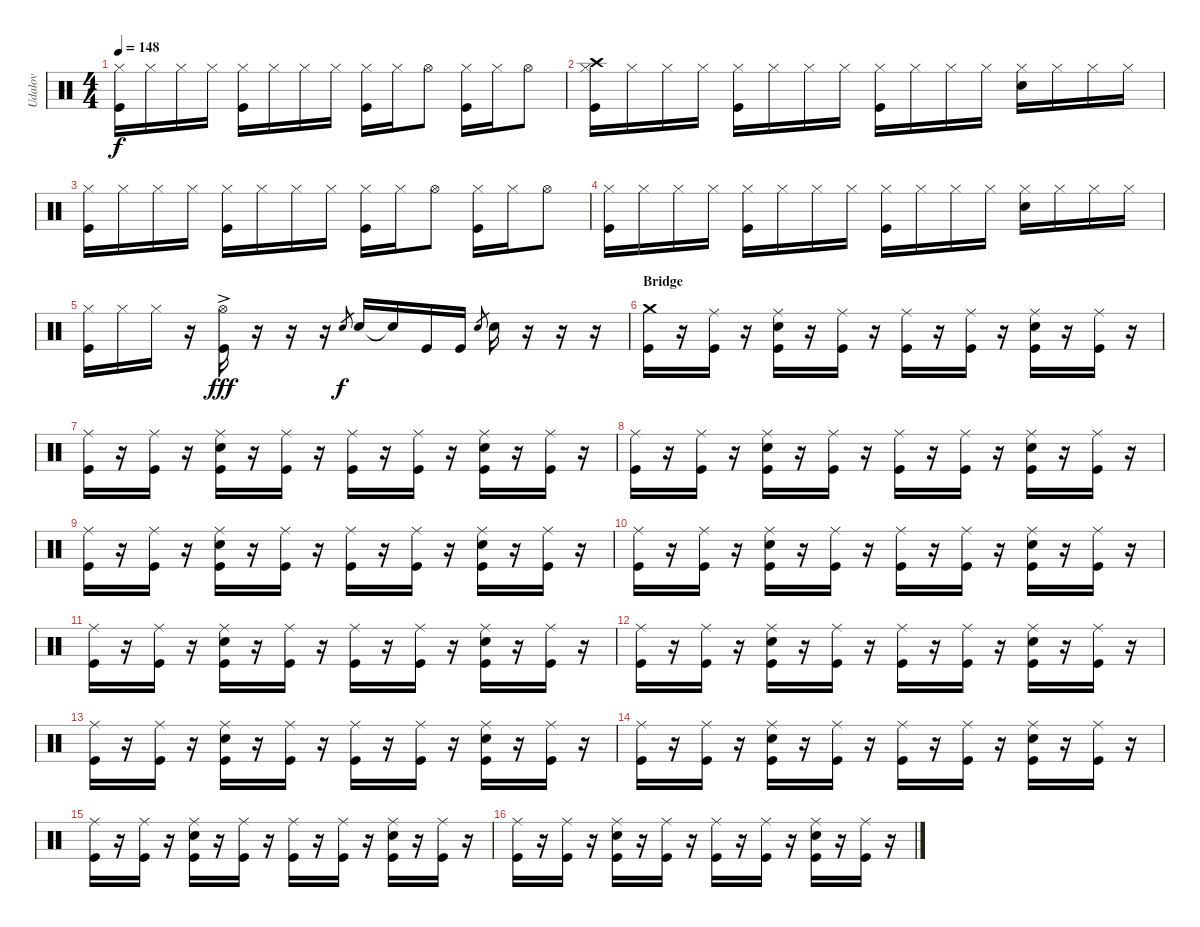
\track ("Udalov" "Udalov") {instrument percussion}
\staff {score}
\articulation defaults
\ts (4 4)
\tempo 148
\clef neutral
\ks c
("Kick (hit)" "Hi-Hat (closed)").16{dy f} "Hi-Hat (closed)".16 "Hi-Hat (closed)".16 "Hi-Hat (closed)".16 ("Kick (hit)" "Hi-Hat (closed)").16 "Hi-Hat (closed)".16 "Hi-Hat (closed)".16 "Hi-Hat (closed)".16 ("Kick (hit)" "Hi-Hat (closed)").16 "Hi-Hat (closed)".16 "Hi-Hat (open)".8 ("Kick (hit)" "Hi-Hat (closed)").16 "Hi-Hat (closed)".16 "Hi-Hat (open)".8 |
("Kick (hit)" "Crash high (hit)" "Hi-Hat (closed)").16 "Hi-Hat (closed)".16 "Hi-Hat (closed)".16 "Hi-Hat (closed)".16 ("Kick (hit)" "Hi-Hat (closed)").16 "Hi-Hat (closed)".16 "Hi-Hat (closed)".16 "Hi-Hat (closed)".16 ("Kick (hit)" "Hi-Hat (closed)").16 "Hi-Hat (closed)".16 "Hi-Hat (closed)".16 "Hi-Hat (closed)".16 ("Electric Snare (hit)" "Hi-Hat (closed)").16 "Hi-Hat (closed)".16 "Hi-Hat (closed)".16 "Hi-Hat (closed)".16 |
("Kick (hit)" "Hi-Hat (closed)").16 "Hi-Hat (closed)".16 "Hi-Hat (closed)".16 "Hi-Hat (closed)".16 ("Kick (hit)" "Hi-Hat (closed)").16 "Hi-Hat (closed)".16 "Hi-Hat (closed)".16 "Hi-Hat (closed)".16 ("Kick (hit)" "Hi-Hat (closed)").16 "Hi-Hat (closed)".16 "Hi-Hat (open)".8 ("Kick (hit)" "Hi-Hat (closed)").16 "Hi-Hat (closed)".16 "Hi-Hat (open)".8 |
("Kick (hit)" "Hi-Hat (closed)").16 "Hi-Hat (closed)".16 "Hi-Hat (closed)".16 "Hi-Hat (closed)".16 ("Kick (hit)" "Hi-Hat (closed)").16 "Hi-Hat (closed)".16 "Hi-Hat (closed)".16 "Hi-Hat (closed)".16 ("Kick (hit)" "Hi-Hat (closed)").16 "Hi-Hat (closed)".16 "Hi-Hat (closed)".16 "Hi-Hat (closed)".16 ("Electric Snare (hit)" "Hi-Hat (closed)").16 "Hi-Hat (closed)".16 "Hi-Hat (closed)".16 "Hi-Hat (closed)".16 |
("Kick (hit)" "Hi-Hat (closed)").16 "Hi-Hat (closed)".16 "Hi-Hat (closed)".16 r.16 ("Kick (hit)"{ac} "Hi-Hat (open)"{ac}).16{dy fff} r.16 r.16 r.16 "Electric Snare (hit)".8{gr dy f} "Electric Snare (hit)".16 "Snare (hit)"{t}.16 "Kick (hit)".16 "Kick (hit)".16 "Electric Snare (hit)".8{gr} "Electric Snare (hit)".16 r.16 r.16 r.16 |
\section ("" "Bridge")
("Kick (hit)" "Crash medium (hit)").16 r.16 ("Kick (hit)" "Ride (middle)").16 r.16 ("Electric Snare (hit)" "Kick (hit)" "Ride (middle)").16 r.16 ("Kick (hit)" "Ride (middle)").16 r.16 ("Kick (hit)" "Ride (middle)").16 r.16 ("Kick (hit)" "Ride (middle)").16 r.16 ("Electric Snare (hit)" "Kick (hit)" "Ride (middle)").16 r.16 ("Kick (hit)" "Ride (middle)").16 r.16 |
("Kick (hit)" "Ride (middle)").16 r.16 ("Kick (hit)" "Ride (middle)").16 r.16 ("Electric Snare (hit)" "Kick (hit)" "Ride (middle)").16 r.16 ("Kick (hit)" "Ride (middle)").16 r.16 ("Kick (hit)" "Ride (middle)").16 r.16 ("Kick (hit)" "Ride (middle)").16 r.16 ("Electric Snare (hit)" "Kick (hit)" "Ride (middle)").16 r.16 ("Kick (hit)" "Ride (middle)").16 r.16 |
("Kick (hit)" "Ride (middle)").16 r.16 ("Kick (hit)" "Ride (middle)").16 r.16 ("Electric Snare (hit)" "Kick (hit)" "Ride (middle)").16 r.16 ("Kick (hit)" "Ride (middle)").16 r.16 ("Kick (hit)" "Ride (middle)").16 r.16 ("Kick (hit)" "Ride (middle)").16 r.16 ("Electric Snare (hit)" "Kick (hit)" "Ride (middle)").16 r.16 ("Kick (hit)" "Ride (middle)").16 r.16 |
("Kick (hit)" "Ride (middle)").16 r.16 ("Kick (hit)" "Ride (middle)").16 r.16 ("Electric Snare (hit)" "Kick (hit)" "Ride (middle)").16 r.16 ("Kick (hit)" "Ride (middle)").16 r.16 ("Kick (hit)" "Ride (middle)").16 r.16 ("Kick (hit)" "Ride (middle)").16 r.16 ("Electric Snare (hit)" "Kick (hit)" "Ride (middle)").16 r.16 ("Kick (hit)" "Ride (middle)").16 r.16 |
("Kick (hit)" "Ride (middle)").16 r.16 ("Kick (hit)" "Ride (middle)").16 r.16 ("Electric Snare (hit)" "Kick (hit)" "Ride (middle)").16 r.16 ("Kick (hit)" "Ride (middle)").16 r.16 ("Kick (hit)" "Ride (middle)").16 r.16 ("Kick (hit)" "Ride (middle)").16 r.16 ("Electric Snare (hit)" "Kick (hit)" "Ride (middle)").16 r.16 ("Kick (hit)" "Ride (middle)").16 r.16 |
("Kick (hit)" "Ride (middle)").16 r.16 ("Kick (hit)" "Ride (middle)").16 r.16 ("Electric Snare (hit)" "Kick (hit)" "Ride (middle)").16 r.16 ("Kick (hit)" "Ride (middle)").16 r.16 ("Kick (hit)" "Ride (middle)").16 r.16 ("Kick (hit)" "Ride (middle)").16 r.16 ("Electric Snare (hit)" "Kick (hit)" "Ride (middle)").16 r.16 ("Kick (hit)" "Ride (middle)").16 r.16 |
("Kick (hit)" "Ride (middle)").16 r.16 ("Kick (hit)" "Ride (middle)").16 r.16 ("Electric Snare (hit)" "Kick (hit)" "Ride (middle)").16 r.16 ("Kick (hit)" "Ride (middle)").16 r.16 ("Kick (hit)" "Ride (middle)").16 r.16 ("Kick (hit)" "Ride (middle)").16 r.16 ("Electric Snare (hit)" "Kick (hit)" "Ride (middle)").16 r.16 ("Kick (hit)" "Ride (middle)").16 r.16 |
("Kick (hit)" "Ride (middle)").16 r.16 ("Kick (hit)" "Ride (middle)").16 r.16 ("Electric Snare (hit)" "Kick (hit)" "Ride (middle)").16 r.16 ("Kick (hit)" "Ride (middle)").16 r.16 ("Kick (hit)" "Ride (middle)").16 r.16 ("Kick (hit)" "Ride (middle)").16 r.16 ("Electric Snare (hit)" "Kick (hit)" "Ride (middle)").16 r.16 ("Kick (hit)" "Ride (middle)").16 r.16 |
("Kick (hit)" "Ride (middle)").16 r.16 ("Kick (hit)" "Ride (middle)").16 r.16 ("Electric Snare (hit)" "Kick (hit)" "Ride (middle)").16 r.16 ("Kick (hit)" "Ride (middle)").16 r.16 ("Kick (hit)" "Ride (middle)").16 r.16 ("Kick (hit)" "Ride (middle)").16 r.16 ("Electric Snare (hit)" "Kick (hit)" "Ride (middle)").16 r.16 ("Kick (hit)" "Ride (middle)").16 r.16 |
("Kick (hit)" "Ride (middle)").16 r.16 ("Kick (hit)" "Ride (middle)").16 r.16 ("Electric Snare (hit)" "Kick (hit)" "Ride (middle)").16 r.16 ("Kick (hit)" "Ride (middle)").16 r.16 ("Kick (hit)" "Ride (middle)").16 r.16 ("Kick (hit)" "Ride (middle)").16 r.16 ("Electric Snare (hit)" "Kick (hit)" "Ride (middle)").16 r.16 ("Kick (hit)" "Ride (middle)").16 r.16 |
("Kick (hit)" "Ride (middle)").16 r.16 ("Kick (hit)" "Ride (middle)").16 r.16 ("Electric Snare (hit)" "Kick (hit)" "Ride (middle)").16 r.16 ("Kick (hit)" "Ride (middle)").16 r.16 ("Kick (hit)" "Ride (middle)").16 r.16 ("Kick (hit)" "Ride (middle)").16 r.16 ("Electric Snare (hit)" "Kick (hit)" "Ride (middle)").16 r.16 ("Kick (hit)" "Ride (middle)").16 r.16
